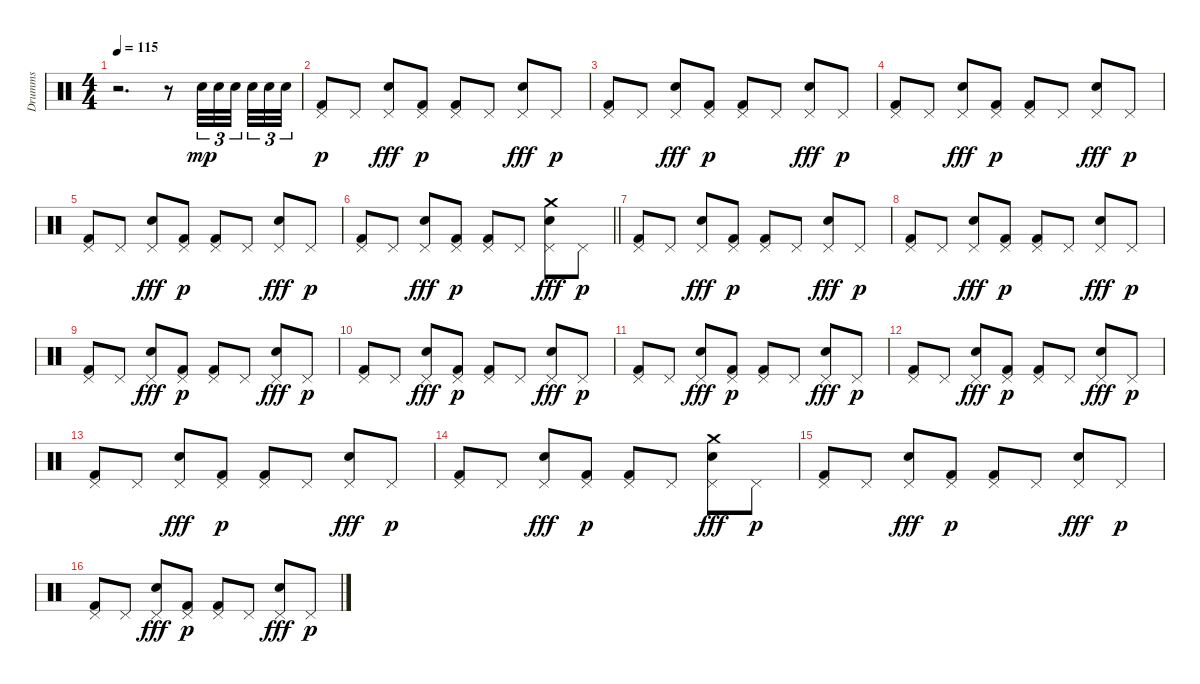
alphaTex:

\track ("Drumms" "Drumms") {instrument percussion}
\staff {score}
\articulation defaults
\ts (4 4)
\tempo 115
\clef neutral
\ks c
r.2{d dy mp} r.8 "Snare (hit) 2".32{tu (3 2)} "Snare (hit) 2".32{tu (3 2)} "Snare (hit) 2".32{tu (3 2)} "Snare (hit) 2".32{tu (3 2)} "Snare (hit) 2".32{tu (3 2)} "Snare (hit) 2".32{tu (3 2)} |
("Pedal Hi-Hat (hit)" "Kick (hit) 2").8{dy p} "Pedal Hi-Hat (hit)".8 ("Pedal Hi-Hat (hit)" "Snare (hit) 2").8{dy fff} ("Pedal Hi-Hat (hit)" "Kick (hit) 2").8{dy p} ("Pedal Hi-Hat (hit)" "Kick (hit) 2").8 "Pedal Hi-Hat (hit)".8 ("Pedal Hi-Hat (hit)" "Snare (hit) 2").8{dy fff} "Pedal Hi-Hat (hit)".8{dy p} |
("Pedal Hi-Hat (hit)" "Kick (hit) 2").8 "Pedal Hi-Hat (hit)".8 ("Pedal Hi-Hat (hit)" "Snare (hit) 2").8{dy fff} ("Pedal Hi-Hat (hit)" "Kick (hit) 2").8{dy p} ("Pedal Hi-Hat (hit)" "Kick (hit) 2").8 "Pedal Hi-Hat (hit)".8 ("Pedal Hi-Hat (hit)" "Snare (hit) 2").8{dy fff} "Pedal Hi-Hat (hit)".8{dy p} |
("Pedal Hi-Hat (hit)" "Kick (hit) 2").8 "Pedal Hi-Hat (hit)".8 ("Pedal Hi-Hat (hit)" "Snare (hit) 2").8{dy fff} ("Pedal Hi-Hat (hit)" "Kick (hit) 2").8{dy p} ("Pedal Hi-Hat (hit)" "Kick (hit) 2").8 "Pedal Hi-Hat (hit)".8 ("Pedal Hi-Hat (hit)" "Snare (hit) 2").8{dy fff} "Pedal Hi-Hat (hit)".8{dy p} |
("Pedal Hi-Hat (hit)" "Kick (hit) 2").8 "Pedal Hi-Hat (hit)".8 ("Pedal Hi-Hat (hit)" "Snare (hit) 2").8{dy fff} ("Pedal Hi-Hat (hit)" "Kick (hit) 2").8{dy p} ("Pedal Hi-Hat (hit)" "Kick (hit) 2").8 "Pedal Hi-Hat (hit)".8 ("Pedal Hi-Hat (hit)" "Snare (hit) 2").8{dy fff} "Pedal Hi-Hat (hit)".8{dy p} |
\barLineRight lightlight
("Pedal Hi-Hat (hit)" "Kick (hit) 2").8 "Pedal Hi-Hat (hit)".8 ("Pedal Hi-Hat (hit)" "Snare (hit) 2").8{dy fff} ("Pedal Hi-Hat (hit)" "Kick (hit) 2").8{dy p} ("Pedal Hi-Hat (hit)" "Kick (hit) 2").8 "Pedal Hi-Hat (hit)".8 ("Pedal Hi-Hat (hit)" "Snare (hit) 2" "Crash medium (hit)").8{dy fff} "Pedal Hi-Hat (hit)".8{dy p} |
\section ("" "")
("Pedal Hi-Hat (hit)" "Kick (hit) 2").8 "Pedal Hi-Hat (hit)".8 ("Pedal Hi-Hat (hit)" "Snare (hit) 2").8{dy fff} ("Pedal Hi-Hat (hit)" "Kick (hit) 2").8{dy p} ("Pedal Hi-Hat (hit)" "Kick (hit) 2").8 "Pedal Hi-Hat (hit)".8 ("Pedal Hi-Hat (hit)" "Snare (hit) 2").8{dy fff} "Pedal Hi-Hat (hit)".8{dy p} |
("Pedal Hi-Hat (hit)" "Kick (hit) 2").8 "Pedal Hi-Hat (hit)".8 ("Pedal Hi-Hat (hit)" "Snare (hit) 2").8{dy fff} ("Pedal Hi-Hat (hit)" "Kick (hit) 2").8{dy p} ("Pedal Hi-Hat (hit)" "Kick (hit) 2").8 "Pedal Hi-Hat (hit)".8 ("Pedal Hi-Hat (hit)" "Snare (hit) 2").8{dy fff} "Pedal Hi-Hat (hit)".8{dy p} |
("Pedal Hi-Hat (hit)" "Kick (hit) 2").8 "Pedal Hi-Hat (hit)".8 ("Pedal Hi-Hat (hit)" "Snare (hit) 2").8{dy fff} ("Pedal Hi-Hat (hit)" "Kick (hit) 2").8{dy p} ("Pedal Hi-Hat (hit)" "Kick (hit) 2").8 "Pedal Hi-Hat (hit)".8 ("Pedal Hi-Hat (hit)" "Snare (hit) 2").8{dy fff} "Pedal Hi-Hat (hit)".8{dy p} |
("Pedal Hi-Hat (hit)" "Kick (hit) 2").8 "Pedal Hi-Hat (hit)".8 ("Pedal Hi-Hat (hit)" "Snare (hit) 2").8{dy fff} ("Pedal Hi-Hat (hit)" "Kick (hit) 2").8{dy p} ("Pedal Hi-Hat (hit)" "Kick (hit) 2").8 "Pedal Hi-Hat (hit)".8 ("Pedal Hi-Hat (hit)" "Snare (hit) 2").8{dy fff} "Pedal Hi-Hat (hit)".8{dy p} |
("Pedal Hi-Hat (hit)" "Kick (hit) 2").8 "Pedal Hi-Hat (hit)".8 ("Pedal Hi-Hat (hit)" "Snare (hit) 2").8{dy fff} ("Pedal Hi-Hat (hit)" "Kick (hit) 2").8{dy p} ("Pedal Hi-Hat (hit)" "Kick (hit) 2").8 "Pedal Hi-Hat (hit)".8 ("Pedal Hi-Hat (hit)" "Snare (hit) 2").8{dy fff} "Pedal Hi-Hat (hit)".8{dy p} |
("Pedal Hi-Hat (hit)" "Kick (hit) 2").8 "Pedal Hi-Hat (hit)".8 ("Pedal Hi-Hat (hit)" "Snare (hit) 2").8{dy fff} ("Pedal Hi-Hat (hit)" "Kick (hit) 2").8{dy p} ("Pedal Hi-Hat (hit)" "Kick (hit) 2").8 "Pedal Hi-Hat (hit)".8 ("Pedal Hi-Hat (hit)" "Snare (hit) 2").8{dy fff} "Pedal Hi-Hat (hit)".8{dy p} |
("Pedal Hi-Hat (hit)" "Kick (hit) 2").8 "Pedal Hi-Hat (hit)".8 ("Pedal Hi-Hat (hit)" "Snare (hit) 2").8{dy fff} ("Pedal Hi-Hat (hit)" "Kick (hit) 2").8{dy p} ("Pedal Hi-Hat (hit)" "Kick (hit) 2").8 "Pedal Hi-Hat (hit)".8 ("Pedal Hi-Hat (hit)" "Snare (hit) 2").8{dy fff} "Pedal Hi-Hat (hit)".8{dy p} |
("Pedal Hi-Hat (hit)" "Kick (hit) 2").8 "Pedal Hi-Hat (hit)".8 ("Pedal Hi-Hat (hit)" "Snare (hit) 2").8{dy fff} ("Pedal Hi-Hat (hit)" "Kick (hit) 2").8{dy p} ("Pedal Hi-Hat (hit)" "Kick (hit) 2").8 "Pedal Hi-Hat (hit)".8 ("Pedal Hi-Hat (hit)" "Snare (hit) 2" "Crash medium (hit)").8{dy fff} "Pedal Hi-Hat (hit)".8{dy p} |
("Pedal Hi-Hat (hit)" "Kick (hit) 2").8 "Pedal Hi-Hat (hit)".8 ("Pedal Hi-Hat (hit)" "Snare (hit) 2").8{dy fff} ("Pedal Hi-Hat (hit)" "Kick (hit) 2").8{dy p} ("Pedal Hi-Hat (hit)" "Kick (hit) 2").8 "Pedal Hi-Hat (hit)".8 ("Pedal Hi-Hat (hit)" "Snare (hit) 2").8{dy fff} "Pedal Hi-Hat (hit)".8{dy p} |
("Pedal Hi-Hat (hit)" "Kick (hit) 2").8 "Pedal Hi-Hat (hit)".8 ("Pedal Hi-Hat (hit)" "Snare (hit) 2").8{dy fff} ("Pedal Hi-Hat (hit)" "Kick (hit) 2").8{dy p} ("Pedal Hi-Hat (hit)" "Kick (hit) 2").8 "Pedal Hi-Hat (hit)".8 ("Pedal Hi-Hat (hit)" "Snare (hit) 2").8{dy fff} "Pedal Hi-Hat (hit)".8{dy p}
